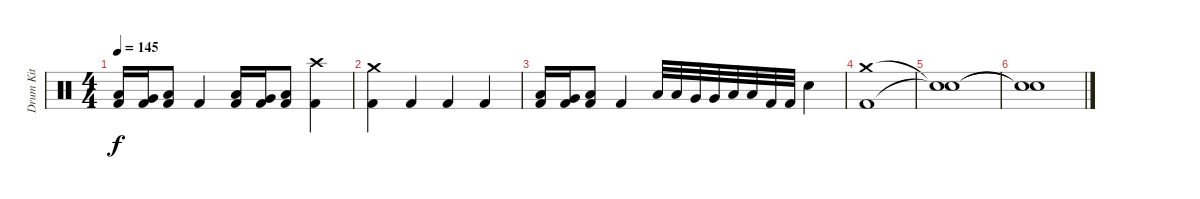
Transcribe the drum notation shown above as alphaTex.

\track ("Drum Kit" "Drum Kit") {instrument percussion}
\staff {score}
\articulation defaults
\ts (4 4)
\tempo 145
\clef neutral
\ks c
("Low Floor Tom (hit)" "Kick (hit) 2").16{dy f} ("Very Low Tom (hit)" "Kick (hit) 2").16 ("Low Floor Tom (hit)" "Kick (hit) 2").8 "Kick (hit) 2".4 ("Low Floor Tom (hit)" "Kick (hit) 2").16 ("Very Low Tom (hit)" "Kick (hit) 2").16 ("Low Floor Tom (hit)" "Kick (hit) 2").8 ("Crash high (hit)" "Kick (hit) 2").4 |
("Crash medium (hit)" "Kick (hit) 2").4 "Kick (hit) 2".4 "Kick (hit) 2".4 "Kick (hit) 2".4 |
("Low Floor Tom (hit)" "Kick (hit) 2").16 ("Very Low Tom (hit)" "Kick (hit) 2").16 ("Low Floor Tom (hit)" "Kick (hit) 2").8 "Kick (hit) 2".4 "Low Tom (hit)".32 "Low Tom (hit)".32 "Very Low Tom (hit)".32 "Very Low Tom (hit)".32 "Low Floor Tom (hit)".32 "Low Floor Tom (hit)".32 "Kick (hit) 2".32 "Kick (hit) 2".32 "Electric Snare (hit)".4 |
("Crash medium (hit)" "Kick (hit) 2").1 |
("Snare (hit)"{t} "Snare (hit)"{t}).1 |
("Snare (hit)"{t} "Snare (hit)"{t}).1
